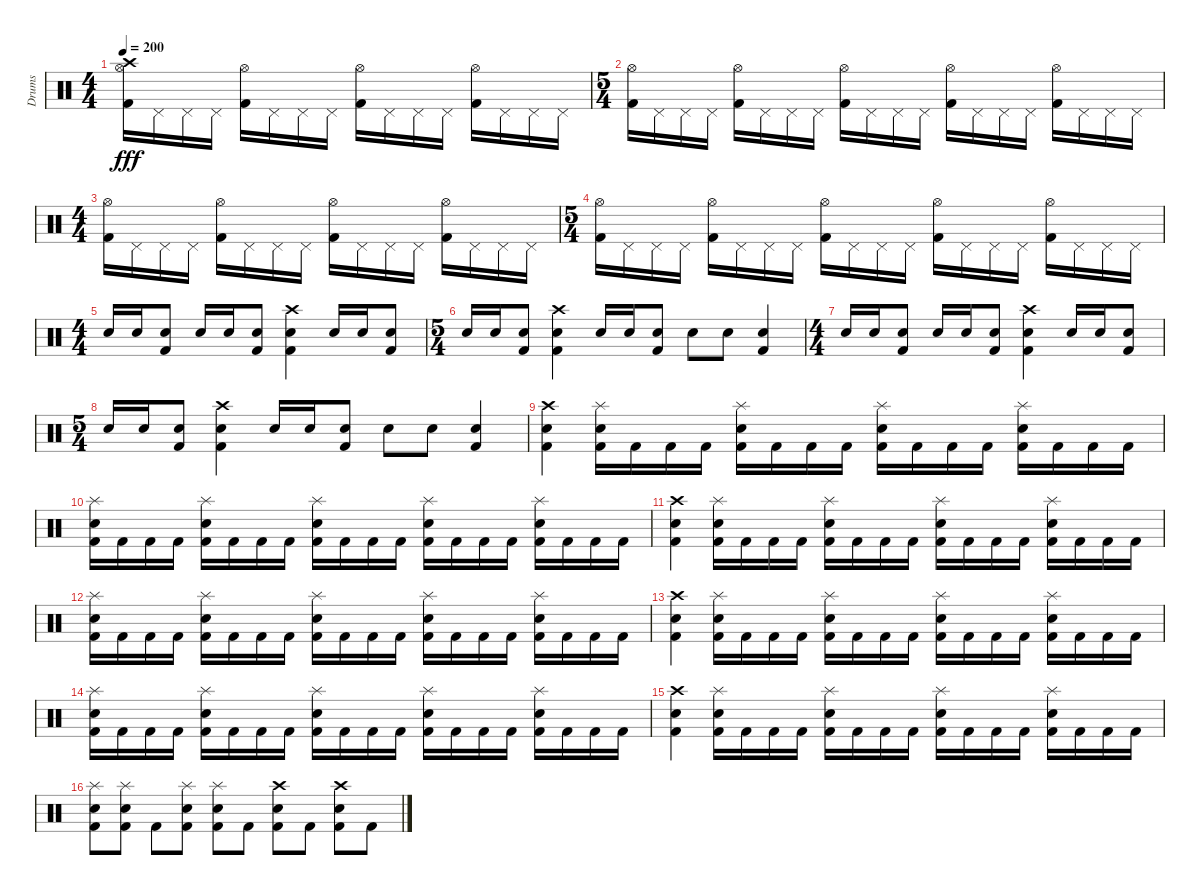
\track ("Drums" "Drums") {instrument percussion}
\staff {score}
\articulation defaults
\ts (4 4)
\tempo 200
\clef neutral
\ks c
("Crash high (hit)" "Hi-Hat (open)" "Kick (hit) 2").16{dy fff} "Pedal Hi-Hat (hit)".16 "Pedal Hi-Hat (hit)".16 "Pedal Hi-Hat (hit)".16 ("Hi-Hat (open)" "Kick (hit) 2").16 "Pedal Hi-Hat (hit)".16 "Pedal Hi-Hat (hit)".16 "Pedal Hi-Hat (hit)".16 ("Hi-Hat (open)" "Kick (hit) 2").16 "Pedal Hi-Hat (hit)".16 "Pedal Hi-Hat (hit)".16 "Pedal Hi-Hat (hit)".16 ("Hi-Hat (open)" "Kick (hit) 2").16 "Pedal Hi-Hat (hit)".16 "Pedal Hi-Hat (hit)".16 "Pedal Hi-Hat (hit)".16 |
\ts (5 4)
("Hi-Hat (open)" "Kick (hit) 2").16 "Pedal Hi-Hat (hit)".16 "Pedal Hi-Hat (hit)".16 "Pedal Hi-Hat (hit)".16 ("Hi-Hat (open)" "Kick (hit) 2").16 "Pedal Hi-Hat (hit)".16 "Pedal Hi-Hat (hit)".16 "Pedal Hi-Hat (hit)".16 ("Hi-Hat (open)" "Kick (hit) 2").16 "Pedal Hi-Hat (hit)".16 "Pedal Hi-Hat (hit)".16 "Pedal Hi-Hat (hit)".16 ("Hi-Hat (open)" "Kick (hit) 2").16 "Pedal Hi-Hat (hit)".16 "Pedal Hi-Hat (hit)".16 "Pedal Hi-Hat (hit)".16 ("Hi-Hat (open)" "Kick (hit) 2").16 "Pedal Hi-Hat (hit)".16 "Pedal Hi-Hat (hit)".16 "Pedal Hi-Hat (hit)".16 |
\ts (4 4)
("Hi-Hat (open)" "Kick (hit) 2").16 "Pedal Hi-Hat (hit)".16 "Pedal Hi-Hat (hit)".16 "Pedal Hi-Hat (hit)".16 ("Hi-Hat (open)" "Kick (hit) 2").16 "Pedal Hi-Hat (hit)".16 "Pedal Hi-Hat (hit)".16 "Pedal Hi-Hat (hit)".16 ("Hi-Hat (open)" "Kick (hit) 2").16 "Pedal Hi-Hat (hit)".16 "Pedal Hi-Hat (hit)".16 "Pedal Hi-Hat (hit)".16 ("Hi-Hat (open)" "Kick (hit) 2").16 "Pedal Hi-Hat (hit)".16 "Pedal Hi-Hat (hit)".16 "Pedal Hi-Hat (hit)".16 |
\ts (5 4)
("Hi-Hat (open)" "Kick (hit) 2").16 "Pedal Hi-Hat (hit)".16 "Pedal Hi-Hat (hit)".16 "Pedal Hi-Hat (hit)".16 ("Hi-Hat (open)" "Kick (hit) 2").16 "Pedal Hi-Hat (hit)".16 "Pedal Hi-Hat (hit)".16 "Pedal Hi-Hat (hit)".16 ("Hi-Hat (open)" "Kick (hit) 2").16 "Pedal Hi-Hat (hit)".16 "Pedal Hi-Hat (hit)".16 "Pedal Hi-Hat (hit)".16 ("Hi-Hat (open)" "Kick (hit) 2").16 "Pedal Hi-Hat (hit)".16 "Pedal Hi-Hat (hit)".16 "Pedal Hi-Hat (hit)".16 ("Hi-Hat (open)" "Kick (hit) 2").16 "Pedal Hi-Hat (hit)".16 "Pedal Hi-Hat (hit)".16 "Pedal Hi-Hat (hit)".16 |
\ts (4 4)
"Snare (hit) 2".16 "Snare (hit) 2".16 ("Snare (hit) 2" "Kick (hit) 2").8 "Snare (hit) 2".16 "Snare (hit) 2".16 ("Snare (hit) 2" "Kick (hit) 2").8 ("Crash high (hit)" "Snare (hit) 2" "Kick (hit) 2").4 "Snare (hit) 2".16 "Snare (hit) 2".16 ("Snare (hit) 2" "Kick (hit) 2").8 |
\ts (5 4)
"Snare (hit) 2".16 "Snare (hit) 2".16 ("Snare (hit) 2" "Kick (hit) 2").8 ("Crash high (hit)" "Snare (hit) 2" "Kick (hit) 2").4 "Snare (hit) 2".16 "Snare (hit) 2".16 ("Snare (hit) 2" "Kick (hit) 2").8 "Snare (hit) 2".8 "Snare (hit) 2".8 ("Snare (hit) 2" "Kick (hit) 2").4 |
\ts (4 4)
"Snare (hit) 2".16 "Snare (hit) 2".16 ("Snare (hit) 2" "Kick (hit) 2").8 "Snare (hit) 2".16 "Snare (hit) 2".16 ("Snare (hit) 2" "Kick (hit) 2").8 ("Crash high (hit)" "Snare (hit) 2" "Kick (hit) 2").4 "Snare (hit) 2".16 "Snare (hit) 2".16 ("Snare (hit) 2" "Kick (hit) 2").8 |
\ts (5 4)
"Snare (hit) 2".16 "Snare (hit) 2".16 ("Snare (hit) 2" "Kick (hit) 2").8 ("Crash high (hit)" "Snare (hit) 2" "Kick (hit) 2").4 "Snare (hit) 2".16 "Snare (hit) 2".16 ("Snare (hit) 2" "Kick (hit) 2").8 "Snare (hit) 2".8 "Snare (hit) 2".8 ("Snare (hit) 2" "Kick (hit) 2").4 |
("Crash high (hit)" "Snare (hit) 2" "Kick (hit) 2").4 ("Splash (hit)" "Snare (hit) 2" "Kick (hit) 2").16 "Kick (hit) 2".16 "Kick (hit) 2".16 "Kick (hit) 2".16 ("Splash (hit)" "Snare (hit) 2" "Kick (hit) 2").16 "Kick (hit) 2".16 "Kick (hit) 2".16 "Kick (hit) 2".16 ("Splash (hit)" "Snare (hit) 2" "Kick (hit) 2").16 "Kick (hit) 2".16 "Kick (hit) 2".16 "Kick (hit) 2".16 ("Splash (hit)" "Snare (hit) 2" "Kick (hit) 2").16 "Kick (hit) 2".16 "Kick (hit) 2".16 "Kick (hit) 2".16 |
("Splash (hit)" "Snare (hit) 2" "Kick (hit) 2").16 "Kick (hit) 2".16 "Kick (hit) 2".16 "Kick (hit) 2".16 ("Splash (hit)" "Snare (hit) 2" "Kick (hit) 2").16 "Kick (hit) 2".16 "Kick (hit) 2".16 "Kick (hit) 2".16 ("Splash (hit)" "Snare (hit) 2" "Kick (hit) 2").16 "Kick (hit) 2".16 "Kick (hit) 2".16 "Kick (hit) 2".16 ("Splash (hit)" "Snare (hit) 2" "Kick (hit) 2").16 "Kick (hit) 2".16 "Kick (hit) 2".16 "Kick (hit) 2".16 ("Splash (hit)" "Snare (hit) 2" "Kick (hit) 2").16 "Kick (hit) 2".16 "Kick (hit) 2".16 "Kick (hit) 2".16 |
("Crash high (hit)" "Snare (hit) 2" "Kick (hit) 2").4 ("Splash (hit)" "Snare (hit) 2" "Kick (hit) 2").16 "Kick (hit) 2".16 "Kick (hit) 2".16 "Kick (hit) 2".16 ("Splash (hit)" "Snare (hit) 2" "Kick (hit) 2").16 "Kick (hit) 2".16 "Kick (hit) 2".16 "Kick (hit) 2".16 ("Splash (hit)" "Snare (hit) 2" "Kick (hit) 2").16 "Kick (hit) 2".16 "Kick (hit) 2".16 "Kick (hit) 2".16 ("Splash (hit)" "Snare (hit) 2" "Kick (hit) 2").16 "Kick (hit) 2".16 "Kick (hit) 2".16 "Kick (hit) 2".16 |
("Splash (hit)" "Snare (hit) 2" "Kick (hit) 2").16 "Kick (hit) 2".16 "Kick (hit) 2".16 "Kick (hit) 2".16 ("Splash (hit)" "Snare (hit) 2" "Kick (hit) 2").16 "Kick (hit) 2".16 "Kick (hit) 2".16 "Kick (hit) 2".16 ("Splash (hit)" "Snare (hit) 2" "Kick (hit) 2").16 "Kick (hit) 2".16 "Kick (hit) 2".16 "Kick (hit) 2".16 ("Splash (hit)" "Snare (hit) 2" "Kick (hit) 2").16 "Kick (hit) 2".16 "Kick (hit) 2".16 "Kick (hit) 2".16 ("Splash (hit)" "Snare (hit) 2" "Kick (hit) 2").16 "Kick (hit) 2".16 "Kick (hit) 2".16 "Kick (hit) 2".16 |
("Crash high (hit)" "Snare (hit) 2" "Kick (hit) 2").4 ("Splash (hit)" "Snare (hit) 2" "Kick (hit) 2").16 "Kick (hit) 2".16 "Kick (hit) 2".16 "Kick (hit) 2".16 ("Splash (hit)" "Snare (hit) 2" "Kick (hit) 2").16 "Kick (hit) 2".16 "Kick (hit) 2".16 "Kick (hit) 2".16 ("Splash (hit)" "Snare (hit) 2" "Kick (hit) 2").16 "Kick (hit) 2".16 "Kick (hit) 2".16 "Kick (hit) 2".16 ("Splash (hit)" "Snare (hit) 2" "Kick (hit) 2").16 "Kick (hit) 2".16 "Kick (hit) 2".16 "Kick (hit) 2".16 |
("Splash (hit)" "Snare (hit) 2" "Kick (hit) 2").16 "Kick (hit) 2".16 "Kick (hit) 2".16 "Kick (hit) 2".16 ("Splash (hit)" "Snare (hit) 2" "Kick (hit) 2").16 "Kick (hit) 2".16 "Kick (hit) 2".16 "Kick (hit) 2".16 ("Splash (hit)" "Snare (hit) 2" "Kick (hit) 2").16 "Kick (hit) 2".16 "Kick (hit) 2".16 "Kick (hit) 2".16 ("Splash (hit)" "Snare (hit) 2" "Kick (hit) 2").16 "Kick (hit) 2".16 "Kick (hit) 2".16 "Kick (hit) 2".16 ("Splash (hit)" "Snare (hit) 2" "Kick (hit) 2").16 "Kick (hit) 2".16 "Kick (hit) 2".16 "Kick (hit) 2".16 |
("Crash high (hit)" "Snare (hit) 2" "Kick (hit) 2").4 ("Splash (hit)" "Snare (hit) 2" "Kick (hit) 2").16 "Kick (hit) 2".16 "Kick (hit) 2".16 "Kick (hit) 2".16 ("Splash (hit)" "Snare (hit) 2" "Kick (hit) 2").16 "Kick (hit) 2".16 "Kick (hit) 2".16 "Kick (hit) 2".16 ("Splash (hit)" "Snare (hit) 2" "Kick (hit) 2").16 "Kick (hit) 2".16 "Kick (hit) 2".16 "Kick (hit) 2".16 ("Splash (hit)" "Snare (hit) 2" "Kick (hit) 2").16 "Kick (hit) 2".16 "Kick (hit) 2".16 "Kick (hit) 2".16 |
("Splash (hit)" "Snare (hit) 2" "Kick (hit) 2").8 ("Splash (hit)" "Snare (hit) 2" "Kick (hit) 2").8 "Kick (hit) 2".8 ("Splash (hit)" "Snare (hit) 2" "Kick (hit) 2").8 ("Splash (hit)" "Snare (hit) 2" "Kick (hit) 2").8 "Kick (hit) 2".8 ("Crash high (hit)" "Snare (hit) 2" "Kick (hit) 2").8 "Kick (hit) 2".8 ("Crash high (hit)" "Snare (hit) 2" "Kick (hit) 2").8 "Kick (hit) 2".8
